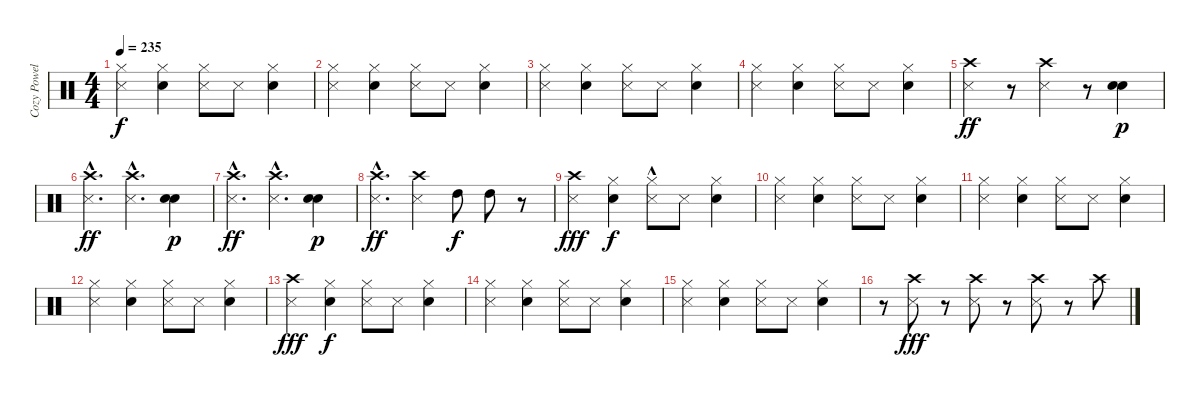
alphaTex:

\track ("Cozy Powell" "Cozy Powel") {instrument percussion}
\staff {score}
\articulation defaults
\ts (4 4)
\tempo 235
\clef neutral
\ks c
("Metronome (hit)" "Hi-Hat (closed)").4{dy f} ("Hi-Hat (closed)" "Electric Snare (hit)").4 ("Hi-Hat (closed)" "Metronome (hit)").8 "Metronome (hit)".8 ("Electric Snare (hit)" "Hi-Hat (closed)").4 |
("Hi-Hat (closed)" "Metronome (hit)").4 ("Electric Snare (hit)" "Hi-Hat (closed)").4 ("Metronome (hit)" "Hi-Hat (closed)").8 "Metronome (hit)".8 ("Electric Snare (hit)" "Hi-Hat (closed)").4 |
("Hi-Hat (closed)" "Metronome (hit)").4 ("Electric Snare (hit)" "Hi-Hat (closed)").4 ("Hi-Hat (closed)" "Metronome (hit)").8 "Metronome (hit)".8 ("Electric Snare (hit)" "Hi-Hat (closed)").4 |
("Hi-Hat (closed)" "Metronome (hit)").4 ("Hi-Hat (closed)" "Electric Snare (hit)").4 ("Hi-Hat (closed)" "Metronome (hit)").8 "Metronome (hit)".8 ("Electric Snare (hit)" "Hi-Hat (closed)").4 |
("Metronome (hit)" "Crash high (hit)").4{dy ff} r.8 ("Crash high (hit)" "Metronome (hit)").4 r.8 ("Electric Snare (hit)" "Electric Snare (hit)").4{dy p} |
("Metronome (hit)"{hac} "Crash high (hit)"{hac}).4{d dy ff} ("Metronome (hit)"{hac} "Crash high (hit)"{hac}).4{d} ("Electric Snare (hit)" "Electric Snare (hit)").4{dy p} |
("Metronome (hit)"{hac} "Crash high (hit)"{hac}).4{d dy ff} ("Crash high (hit)"{hac} "Metronome (hit)"{hac}).4{d} ("Electric Snare (hit)" "Electric Snare (hit)").4{dy p} |
("Crash high (hit)"{hac} "Metronome (hit)"{hac}).4{d dy ff} ("Metronome (hit)" "Crash high (hit)").4 "High Tom (hit)".8{dy f} "High Tom (hit)".8 r.8 |
("Crash high (hit)" "Metronome (hit)").4{dy fff} ("Hi-Hat (closed)" "Electric Snare (hit)").4{dy f} ("Hi-Hat (closed)"{hac} "Metronome (hit)"{hac}).8 "Metronome (hit)".8 ("Hi-Hat (closed)" "Electric Snare (hit)").4 |
("Hi-Hat (closed)" "Metronome (hit)").4 ("Electric Snare (hit)" "Hi-Hat (closed)").4 ("Metronome (hit)" "Hi-Hat (closed)").8 "Metronome (hit)".8 ("Electric Snare (hit)" "Hi-Hat (closed)").4 |
("Metronome (hit)" "Hi-Hat (closed)").4 ("Electric Snare (hit)" "Hi-Hat (closed)").4 ("Metronome (hit)" "Hi-Hat (closed)").8 "Metronome (hit)".8 ("Electric Snare (hit)" "Hi-Hat (closed)").4 |
("Metronome (hit)" "Hi-Hat (closed)").4 ("Electric Snare (hit)" "Hi-Hat (closed)").4 ("Metronome (hit)" "Hi-Hat (closed)").8 "Metronome (hit)".8 ("Electric Snare (hit)" "Hi-Hat (closed)").4 |
("Metronome (hit)" "Crash high (hit)").4{dy fff} ("Electric Snare (hit)" "Hi-Hat (closed)").4{dy f} ("Metronome (hit)" "Hi-Hat (closed)").8 "Metronome (hit)".8 ("Electric Snare (hit)" "Hi-Hat (closed)").4 |
("Metronome (hit)" "Hi-Hat (closed)").4 ("Electric Snare (hit)" "Hi-Hat (closed)").4 ("Metronome (hit)" "Hi-Hat (closed)").8 "Metronome (hit)".8 ("Electric Snare (hit)" "Hi-Hat (closed)").4 |
("Metronome (hit)" "Hi-Hat (closed)").4 ("Electric Snare (hit)" "Hi-Hat (closed)").4 ("Hi-Hat (closed)" "Metronome (hit)").8 "Metronome (hit)".8 ("Electric Snare (hit)" "Hi-Hat (closed)").4 |
r.8 ("Metronome (hit)" "Crash high (hit)").8{dy fff} r.8 ("Metronome (hit)" "Crash high (hit)").8 r.8 ("Metronome (hit)" "Crash high (hit)").8 r.8 "Crash high (hit)".8
